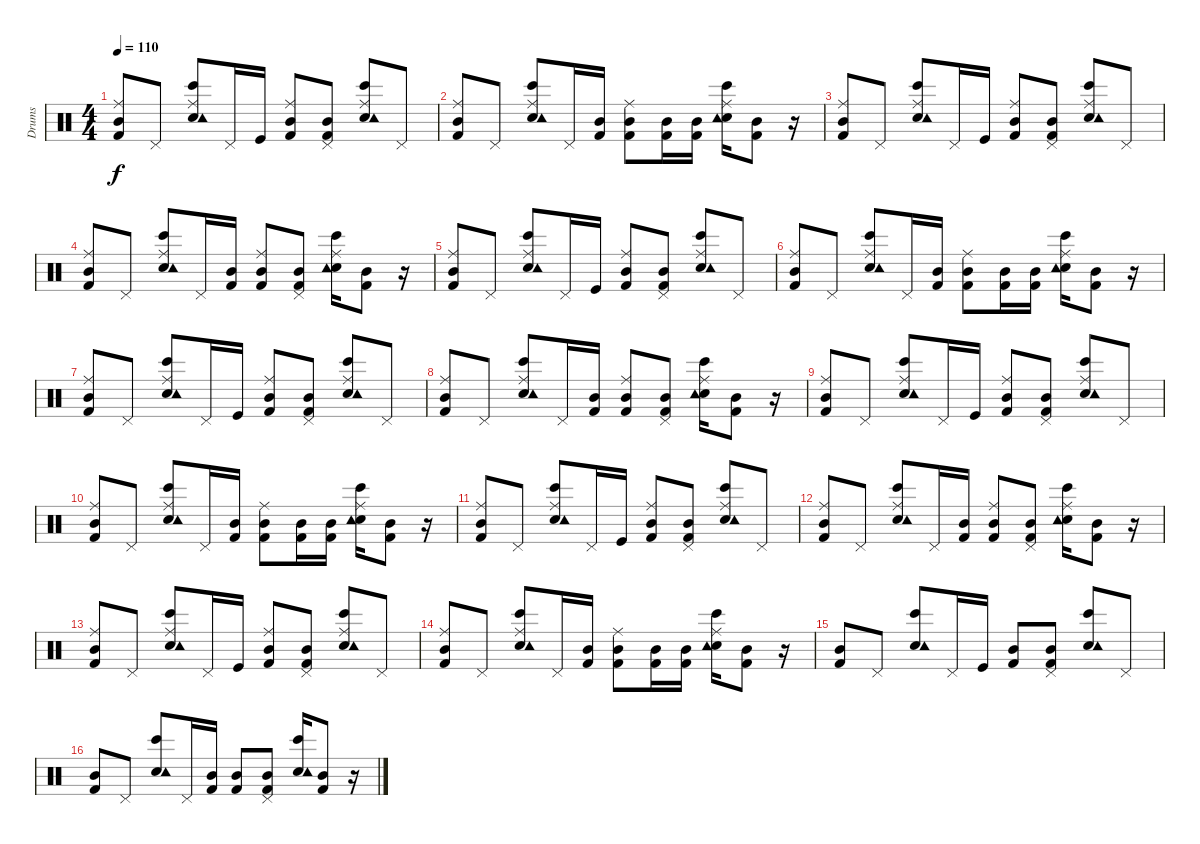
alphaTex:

\track ("Drums" "Drums") {instrument percussion}
\staff {score}
\articulation defaults
\ts (4 4)
\tempo 110
\clef neutral
\ks c
("Ride (middle)" "Mid Tom (hit)" "Kick (hit) 2").8{dy f} "Pedal Hi-Hat (hit)".8 ("Ride (middle)" "Electric Snare (hit)" "Bongo High (hit)" "Tambourine (hit)").8 "Pedal Hi-Hat (hit)".16 "Kick (hit)".16 ("Ride (middle)" "Mid Tom (hit)" "Kick (hit) 2").8 ("Pedal Hi-Hat (hit)" "Mid Tom (hit)" "Kick (hit) 2").8 ("Ride (middle)" "Electric Snare (hit)" "Bongo High (hit)" "Tambourine (hit)").8 "Pedal Hi-Hat (hit)".8 |
("Ride (middle)" "Mid Tom (hit)" "Kick (hit) 2").8 "Pedal Hi-Hat (hit)".8 ("Ride (middle)" "Electric Snare (hit)" "Bongo High (hit)" "Tambourine (hit)").8 "Pedal Hi-Hat (hit)".16 ("Mid Tom (hit)" "Kick (hit) 2").16 ("Ride (middle)" "Mid Tom (hit)" "Kick (hit) 2").8 ("Mid Tom (hit)" "Kick (hit) 2").16 ("Mid Tom (hit)" "Kick (hit) 2").16 ("Ride (middle)" "Electric Snare (hit)" "Bongo High (hit)" "Tambourine (hit)").16 ("Mid Tom (hit)" "Kick (hit) 2").8 r.16 |
("Ride (middle)" "Mid Tom (hit)" "Kick (hit) 2").8 "Pedal Hi-Hat (hit)".8 ("Ride (middle)" "Electric Snare (hit)" "Bongo High (hit)" "Tambourine (hit)").8 "Pedal Hi-Hat (hit)".16 "Kick (hit)".16 ("Ride (middle)" "Mid Tom (hit)" "Kick (hit) 2").8 ("Pedal Hi-Hat (hit)" "Mid Tom (hit)" "Kick (hit) 2").8 ("Ride (middle)" "Electric Snare (hit)" "Bongo High (hit)" "Tambourine (hit)").8 "Pedal Hi-Hat (hit)".8 |
("Ride (middle)" "Mid Tom (hit)" "Kick (hit) 2").8 "Pedal Hi-Hat (hit)".8 ("Ride (middle)" "Electric Snare (hit)" "Bongo High (hit)" "Tambourine (hit)").8 "Pedal Hi-Hat (hit)".16 ("Mid Tom (hit)" "Kick (hit) 2").16 ("Ride (middle)" "Mid Tom (hit)" "Kick (hit) 2").8 ("Pedal Hi-Hat (hit)" "Mid Tom (hit)" "Kick (hit) 2").8 ("Ride (middle)" "Electric Snare (hit)" "Bongo High (hit)" "Tambourine (hit)").16 ("Mid Tom (hit)" "Kick (hit) 2").8 r.16 |
("Ride (middle)" "Mid Tom (hit)" "Kick (hit) 2").8 "Pedal Hi-Hat (hit)".8 ("Ride (middle)" "Electric Snare (hit)" "Bongo High (hit)" "Tambourine (hit)").8 "Pedal Hi-Hat (hit)".16 "Kick (hit)".16 ("Ride (middle)" "Mid Tom (hit)" "Kick (hit) 2").8 ("Pedal Hi-Hat (hit)" "Mid Tom (hit)" "Kick (hit) 2").8 ("Ride (middle)" "Electric Snare (hit)" "Bongo High (hit)" "Tambourine (hit)").8 "Pedal Hi-Hat (hit)".8 |
("Ride (middle)" "Mid Tom (hit)" "Kick (hit) 2").8 "Pedal Hi-Hat (hit)".8 ("Ride (middle)" "Electric Snare (hit)" "Bongo High (hit)" "Tambourine (hit)").8 "Pedal Hi-Hat (hit)".16 ("Mid Tom (hit)" "Kick (hit) 2").16 ("Ride (middle)" "Mid Tom (hit)" "Kick (hit) 2").8 ("Mid Tom (hit)" "Kick (hit) 2").16 ("Mid Tom (hit)" "Kick (hit) 2").16 ("Ride (middle)" "Electric Snare (hit)" "Bongo High (hit)" "Tambourine (hit)").16 ("Mid Tom (hit)" "Kick (hit) 2").8 r.16 |
("Ride (middle)" "Mid Tom (hit)" "Kick (hit) 2").8 "Pedal Hi-Hat (hit)".8 ("Ride (middle)" "Electric Snare (hit)" "Bongo High (hit)" "Tambourine (hit)").8 "Pedal Hi-Hat (hit)".16 "Kick (hit)".16 ("Ride (middle)" "Mid Tom (hit)" "Kick (hit) 2").8 ("Pedal Hi-Hat (hit)" "Mid Tom (hit)" "Kick (hit) 2").8 ("Ride (middle)" "Electric Snare (hit)" "Bongo High (hit)" "Tambourine (hit)").8 "Pedal Hi-Hat (hit)".8 |
("Ride (middle)" "Mid Tom (hit)" "Kick (hit) 2").8 "Pedal Hi-Hat (hit)".8 ("Ride (middle)" "Electric Snare (hit)" "Bongo High (hit)" "Tambourine (hit)").8 "Pedal Hi-Hat (hit)".16 ("Mid Tom (hit)" "Kick (hit) 2").16 ("Ride (middle)" "Mid Tom (hit)" "Kick (hit) 2").8 ("Pedal Hi-Hat (hit)" "Mid Tom (hit)" "Kick (hit) 2").8 ("Ride (middle)" "Electric Snare (hit)" "Bongo High (hit)" "Tambourine (hit)").16 ("Mid Tom (hit)" "Kick (hit) 2").8 r.16 |
("Ride (middle)" "Mid Tom (hit)" "Kick (hit) 2").8 "Pedal Hi-Hat (hit)".8 ("Ride (middle)" "Electric Snare (hit)" "Bongo High (hit)" "Tambourine (hit)").8 "Pedal Hi-Hat (hit)".16 "Kick (hit)".16 ("Ride (middle)" "Mid Tom (hit)" "Kick (hit) 2").8 ("Pedal Hi-Hat (hit)" "Mid Tom (hit)" "Kick (hit) 2").8 ("Ride (middle)" "Electric Snare (hit)" "Bongo High (hit)" "Tambourine (hit)").8 "Pedal Hi-Hat (hit)".8 |
("Ride (middle)" "Mid Tom (hit)" "Kick (hit) 2").8 "Pedal Hi-Hat (hit)".8 ("Ride (middle)" "Electric Snare (hit)" "Bongo High (hit)" "Tambourine (hit)").8 "Pedal Hi-Hat (hit)".16 ("Mid Tom (hit)" "Kick (hit) 2").16 ("Ride (middle)" "Mid Tom (hit)" "Kick (hit) 2").8 ("Mid Tom (hit)" "Kick (hit) 2").16 ("Mid Tom (hit)" "Kick (hit) 2").16 ("Ride (middle)" "Electric Snare (hit)" "Bongo High (hit)" "Tambourine (hit)").16 ("Mid Tom (hit)" "Kick (hit) 2").8 r.16 |
("Ride (middle)" "Mid Tom (hit)" "Kick (hit) 2").8 "Pedal Hi-Hat (hit)".8 ("Ride (middle)" "Electric Snare (hit)" "Bongo High (hit)" "Tambourine (hit)").8 "Pedal Hi-Hat (hit)".16 "Kick (hit)".16 ("Ride (middle)" "Mid Tom (hit)" "Kick (hit) 2").8 ("Pedal Hi-Hat (hit)" "Mid Tom (hit)" "Kick (hit) 2").8 ("Ride (middle)" "Electric Snare (hit)" "Bongo High (hit)" "Tambourine (hit)").8 "Pedal Hi-Hat (hit)".8 |
("Ride (middle)" "Mid Tom (hit)" "Kick (hit) 2").8 "Pedal Hi-Hat (hit)".8 ("Ride (middle)" "Electric Snare (hit)" "Bongo High (hit)" "Tambourine (hit)").8 "Pedal Hi-Hat (hit)".16 ("Mid Tom (hit)" "Kick (hit) 2").16 ("Ride (middle)" "Mid Tom (hit)" "Kick (hit) 2").8 ("Pedal Hi-Hat (hit)" "Mid Tom (hit)" "Kick (hit) 2").8 ("Ride (middle)" "Electric Snare (hit)" "Bongo High (hit)" "Tambourine (hit)").16 ("Mid Tom (hit)" "Kick (hit) 2").8 r.16 |
("Ride (middle)" "Mid Tom (hit)" "Kick (hit) 2").8 "Pedal Hi-Hat (hit)".8 ("Ride (middle)" "Electric Snare (hit)" "Bongo High (hit)" "Tambourine (hit)").8 "Pedal Hi-Hat (hit)".16 "Kick (hit)".16 ("Ride (middle)" "Mid Tom (hit)" "Kick (hit) 2").8 ("Pedal Hi-Hat (hit)" "Mid Tom (hit)" "Kick (hit) 2").8 ("Ride (middle)" "Electric Snare (hit)" "Bongo High (hit)" "Tambourine (hit)").8 "Pedal Hi-Hat (hit)".8 |
("Ride (middle)" "Mid Tom (hit)" "Kick (hit) 2").8 "Pedal Hi-Hat (hit)".8 ("Ride (middle)" "Electric Snare (hit)" "Bongo High (hit)" "Tambourine (hit)").8 "Pedal Hi-Hat (hit)".16 ("Mid Tom (hit)" "Kick (hit) 2").16 ("Ride (middle)" "Mid Tom (hit)" "Kick (hit) 2").8 ("Mid Tom (hit)" "Kick (hit) 2").16 ("Mid Tom (hit)" "Kick (hit) 2").16 ("Ride (middle)" "Electric Snare (hit)" "Bongo High (hit)" "Tambourine (hit)").16 ("Mid Tom (hit)" "Kick (hit) 2").8 r.16 |
("Mid Tom (hit)" "Kick (hit) 2").8 "Pedal Hi-Hat (hit)".8 ("Electric Snare (hit)" "Bongo High (hit)" "Tambourine (hit)").8 "Pedal Hi-Hat (hit)".16 "Kick (hit)".16 ("Mid Tom (hit)" "Kick (hit) 2").8 ("Pedal Hi-Hat (hit)" "Mid Tom (hit)" "Kick (hit) 2").8 ("Electric Snare (hit)" "Bongo High (hit)" "Tambourine (hit)").8 "Pedal Hi-Hat (hit)".8 |
("Mid Tom (hit)" "Kick (hit) 2").8 "Pedal Hi-Hat (hit)".8 ("Electric Snare (hit)" "Bongo High (hit)" "Tambourine (hit)").8 "Pedal Hi-Hat (hit)".16 ("Mid Tom (hit)" "Kick (hit) 2").16 ("Mid Tom (hit)" "Kick (hit) 2").8 ("Pedal Hi-Hat (hit)" "Mid Tom (hit)" "Kick (hit) 2").8 ("Electric Snare (hit)" "Bongo High (hit)" "Tambourine (hit)").16 ("Mid Tom (hit)" "Kick (hit) 2").8 r.16
